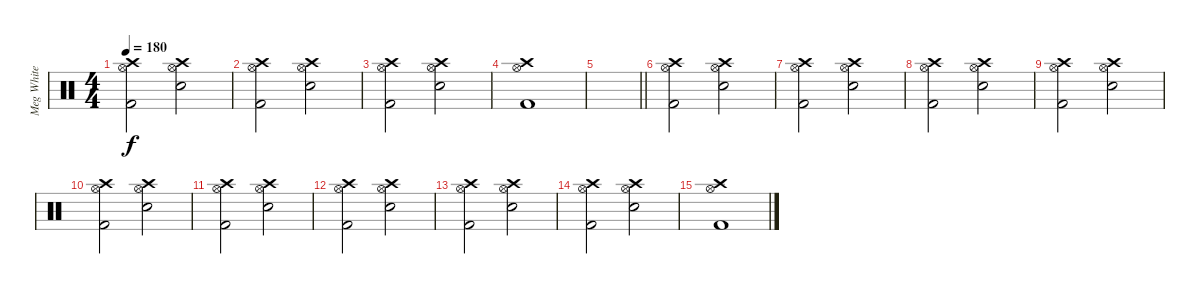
\track ("Meg White" "Meg White") {instrument percussion}
\staff {score}
\articulation defaults
\ts (4 4)
\tempo 180
\clef neutral
\ks c
("Crash high (hit)" "Hi-Hat (open)" "Kick (hit) 2").2{dy f} ("Crash high (hit)" "Hi-Hat (open)" "Electric Snare (hit)").2 |
("Crash high (hit)" "Hi-Hat (open)" "Kick (hit) 2").2 ("Crash high (hit)" "Hi-Hat (open)" "Electric Snare (hit)").2 |
("Crash high (hit)" "Hi-Hat (open)" "Kick (hit) 2").2 ("Crash high (hit)" "Hi-Hat (open)" "Electric Snare (hit)").2 |
("Crash high (hit)" "Hi-Hat (open)" "Kick (hit) 2").1 |
\barLineRight lightlight
|
("Crash high (hit)" "Hi-Hat (open)" "Kick (hit) 2").2 ("Crash high (hit)" "Hi-Hat (open)" "Electric Snare (hit)").2 |
("Crash high (hit)" "Hi-Hat (open)" "Kick (hit) 2").2 ("Crash high (hit)" "Hi-Hat (open)" "Electric Snare (hit)").2 |
("Crash high (hit)" "Hi-Hat (open)" "Kick (hit) 2").2 ("Crash high (hit)" "Hi-Hat (open)" "Electric Snare (hit)").2 |
("Crash high (hit)" "Hi-Hat (open)" "Kick (hit) 2").2 ("Crash high (hit)" "Hi-Hat (open)" "Electric Snare (hit)").2 |
("Crash high (hit)" "Hi-Hat (open)" "Kick (hit) 2").2 ("Crash high (hit)" "Hi-Hat (open)" "Electric Snare (hit)").2 |
("Crash high (hit)" "Hi-Hat (open)" "Kick (hit) 2").2 ("Crash high (hit)" "Hi-Hat (open)" "Electric Snare (hit)").2 |
("Crash high (hit)" "Hi-Hat (open)" "Kick (hit) 2").2 ("Crash high (hit)" "Hi-Hat (open)" "Electric Snare (hit)").2 |
("Crash high (hit)" "Hi-Hat (open)" "Kick (hit) 2").2 ("Crash high (hit)" "Hi-Hat (open)" "Electric Snare (hit)").2 |
("Crash high (hit)" "Hi-Hat (open)" "Kick (hit) 2").2 ("Crash high (hit)" "Hi-Hat (open)" "Electric Snare (hit)").2 |
("Crash high (hit)" "Hi-Hat (open)" "Kick (hit) 2").1
